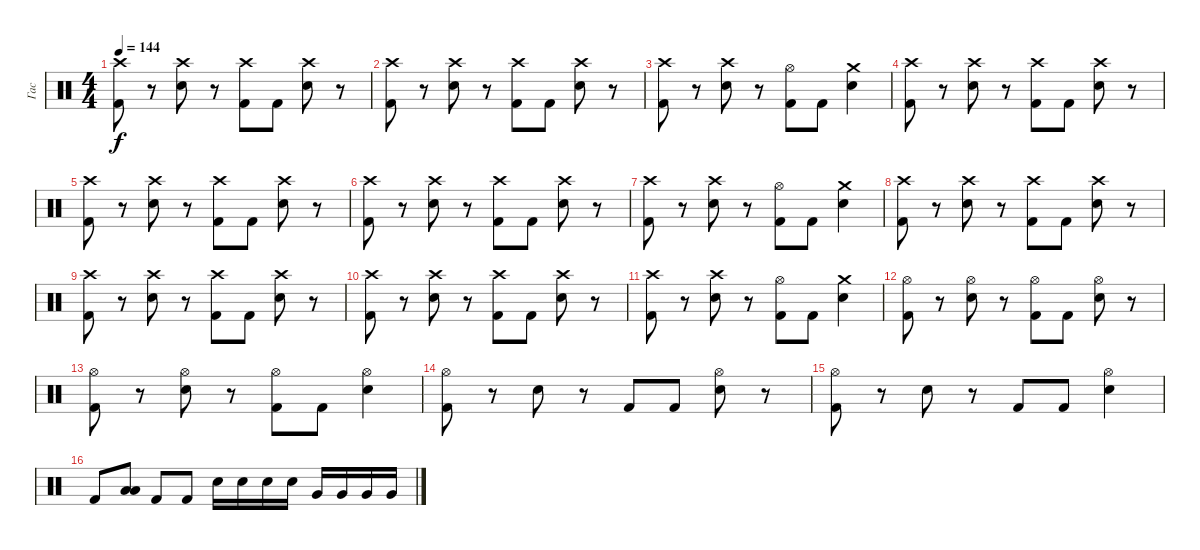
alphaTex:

\track ("Гас" "Гас") {instrument percussion}
\staff {score}
\articulation defaults
\ts (4 4)
\tempo 144
\clef neutral
\ks c
("Crash high (hit)" "Kick (hit) 2").8{dy f} r.8 ("Crash high (hit)" "Electric Snare (hit)").8 r.8 ("Crash high (hit)" "Kick (hit) 2").8 "Kick (hit) 2".8 ("Crash high (hit)" "Electric Snare (hit)").8 r.8 |
("Crash high (hit)" "Kick (hit) 2").8 r.8 ("Crash high (hit)" "Electric Snare (hit)").8 r.8 ("Crash high (hit)" "Kick (hit) 2").8 "Kick (hit) 2".8 ("Crash high (hit)" "Electric Snare (hit)").8 r.8 |
("Crash high (hit)" "Kick (hit) 2").8 r.8 ("Crash high (hit)" "Electric Snare (hit)").8 r.8 ("Hi-Hat (open)" "Kick (hit) 2").8 "Kick (hit) 2".8 ("Crash medium (hit)" "Electric Snare (hit)").4 |
("Crash high (hit)" "Kick (hit) 2").8 r.8 ("Crash high (hit)" "Electric Snare (hit)").8 r.8 ("Crash high (hit)" "Kick (hit) 2").8 "Kick (hit) 2".8 ("Crash high (hit)" "Electric Snare (hit)").8 r.8 |
("Crash high (hit)" "Kick (hit) 2").8 r.8 ("Crash high (hit)" "Electric Snare (hit)").8 r.8 ("Crash high (hit)" "Kick (hit) 2").8 "Kick (hit) 2".8 ("Crash high (hit)" "Electric Snare (hit)").8 r.8 |
("Crash high (hit)" "Kick (hit) 2").8 r.8 ("Crash high (hit)" "Electric Snare (hit)").8 r.8 ("Crash high (hit)" "Kick (hit) 2").8 "Kick (hit) 2".8 ("Crash high (hit)" "Electric Snare (hit)").8 r.8 |
("Crash high (hit)" "Kick (hit) 2").8 r.8 ("Crash high (hit)" "Electric Snare (hit)").8 r.8 ("Hi-Hat (open)" "Kick (hit) 2").8 "Kick (hit) 2".8 ("Crash medium (hit)" "Electric Snare (hit)").4 |
("Crash high (hit)" "Kick (hit) 2").8 r.8 ("Crash high (hit)" "Electric Snare (hit)").8 r.8 ("Crash high (hit)" "Kick (hit) 2").8 "Kick (hit) 2".8 ("Crash high (hit)" "Electric Snare (hit)").8 r.8 |
("Crash high (hit)" "Kick (hit) 2").8 r.8 ("Crash high (hit)" "Electric Snare (hit)").8 r.8 ("Crash high (hit)" "Kick (hit) 2").8 "Kick (hit) 2".8 ("Crash high (hit)" "Electric Snare (hit)").8 r.8 |
("Crash high (hit)" "Kick (hit) 2").8 r.8 ("Crash high (hit)" "Electric Snare (hit)").8 r.8 ("Crash high (hit)" "Kick (hit) 2").8 "Kick (hit) 2".8 ("Crash high (hit)" "Electric Snare (hit)").8 r.8 |
("Crash high (hit)" "Kick (hit) 2").8 r.8 ("Crash high (hit)" "Electric Snare (hit)").8 r.8 ("Hi-Hat (open)" "Kick (hit) 2").8 "Kick (hit) 2".8 ("Crash medium (hit)" "Electric Snare (hit)").4 |
("Hi-Hat (open)" "Kick (hit) 2").8 r.8 ("Hi-Hat (open)" "Electric Snare (hit)").8 r.8 ("Hi-Hat (open)" "Kick (hit) 2").8 "Kick (hit) 2".8 ("Hi-Hat (open)" "Electric Snare (hit)").8 r.8 |
("Hi-Hat (open)" "Kick (hit) 2").8 r.8 ("Hi-Hat (open)" "Electric Snare (hit)").8 r.8 ("Hi-Hat (open)" "Kick (hit) 2").8 "Kick (hit) 2".8 ("Hi-Hat (open)" "Electric Snare (hit)").4 |
("Hi-Hat (open)" "Kick (hit) 2").8 r.8 "Electric Snare (hit)".8 r.8 "Kick (hit) 2".8 "Kick (hit) 2".8 ("Hi-Hat (open)" "Electric Snare (hit)").8 r.8 |
("Hi-Hat (open)" "Kick (hit) 2").8 r.8 "Electric Snare (hit)".8 r.8 "Kick (hit) 2".8 "Kick (hit) 2".8 ("Hi-Hat (open)" "Electric Snare (hit)").4 |
"Kick (hit) 2".8 ("Low Tom (hit)" "Low Tom (hit)").8 "Kick (hit) 2".8 "Kick (hit) 2".8 "Electric Snare (hit)".16 "Electric Snare (hit)".16 "Electric Snare (hit)".16 "Electric Snare (hit)".16 "Very Low Tom (hit)".16 "Very Low Tom (hit)".16 "Very Low Tom (hit)".16 "Very Low Tom (hit)".16
